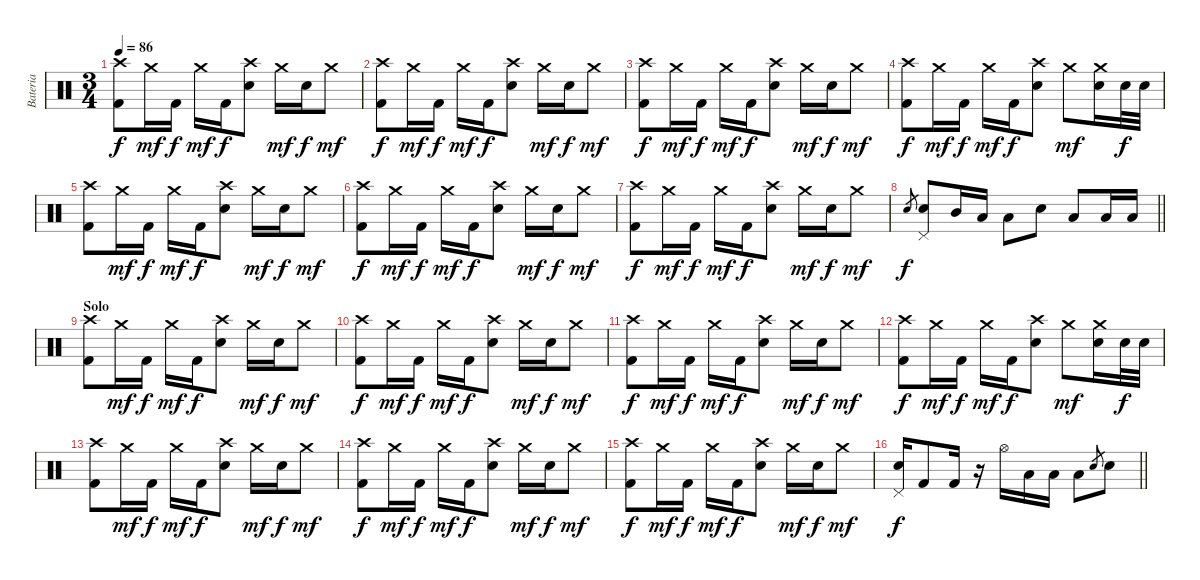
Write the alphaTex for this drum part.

\track ("Bateria" "Bateria") {instrument percussion}
\staff {score}
\articulation defaults
\ts (3 4)
\tempo 86
\clef neutral
\ks c
("Crash high (hit)" "Kick (hit) 2").8{dy f} "Crash medium (hit)".16{dy mf} "Kick (hit) 2".16{dy f} "Crash medium (hit)".16{dy mf} "Kick (hit) 2".16{dy f} ("Crash high (hit)" "Snare (hit) 2").8 "Crash medium (hit)".16{dy mf} "Snare (hit) 2".16{dy f} "Crash medium (hit)".8{dy mf} |
("Crash high (hit)" "Kick (hit) 2").8{dy f} "Crash medium (hit)".16{dy mf} "Kick (hit) 2".16{dy f} "Crash medium (hit)".16{dy mf} "Kick (hit) 2".16{dy f} ("Crash high (hit)" "Snare (hit) 2").8 "Crash medium (hit)".16{dy mf} "Snare (hit) 2".16{dy f} "Crash medium (hit)".8{dy mf} |
("Crash high (hit)" "Kick (hit) 2").8{dy f} "Crash medium (hit)".16{dy mf} "Kick (hit) 2".16{dy f} "Crash medium (hit)".16{dy mf} "Kick (hit) 2".16{dy f} ("Crash high (hit)" "Snare (hit) 2").8 "Crash medium (hit)".16{dy mf} "Snare (hit) 2".16{dy f} "Crash medium (hit)".8{dy mf} |
("Crash high (hit)" "Kick (hit) 2").8{dy f} "Crash medium (hit)".16{dy mf} "Kick (hit) 2".16{dy f} "Crash medium (hit)".16{dy mf} "Kick (hit) 2".16{dy f} ("Crash high (hit)" "Snare (hit) 2").8 "Crash medium (hit)".8{dy mf} ("Crash medium (hit)" "Snare (hit) 2").16 "Snare (hit) 2".32{dy f} "Snare (hit) 2".32 |
("Crash high (hit)" "Kick (hit) 2").8 "Crash medium (hit)".16{dy mf} "Kick (hit) 2".16{dy f} "Crash medium (hit)".16{dy mf} "Kick (hit) 2".16{dy f} ("Crash high (hit)" "Snare (hit) 2").8 "Crash medium (hit)".16{dy mf} "Snare (hit) 2".16{dy f} "Crash medium (hit)".8{dy mf} |
("Crash high (hit)" "Kick (hit) 2").8{dy f} "Crash medium (hit)".16{dy mf} "Kick (hit) 2".16{dy f} "Crash medium (hit)".16{dy mf} "Kick (hit) 2".16{dy f} ("Crash high (hit)" "Snare (hit) 2").8 "Crash medium (hit)".16{dy mf} "Snare (hit) 2".16{dy f} "Crash medium (hit)".8{dy mf} |
("Crash high (hit)" "Kick (hit) 2").8{dy f} "Crash medium (hit)".16{dy mf} "Kick (hit) 2".16{dy f} "Crash medium (hit)".16{dy mf} "Kick (hit) 2".16{dy f} ("Crash high (hit)" "Snare (hit) 2").8 "Crash medium (hit)".16{dy mf} "Snare (hit) 2".16{dy f} "Crash medium (hit)".8{dy mf} |
\barLineRight lightlight "Snare (hit) 2".8{gr dy f}
("Pedal Hi-Hat (hit)" "Snare (hit) 2").8 "Mid Tom (hit)".16 "Low Tom (hit)".16 "Low Floor Tom (hit)".8 "Snare (hit) 2".8 "Low Tom (hit)".8 "Low Floor Tom (hit)".16 "Low Floor Tom (hit)".16 |
\section ("" "Solo")
("Crash high (hit)" "Kick (hit) 2").8 "Crash medium (hit)".16{dy mf} "Kick (hit) 2".16{dy f} "Crash medium (hit)".16{dy mf} "Kick (hit) 2".16{dy f} ("Crash high (hit)" "Snare (hit) 2").8 "Crash medium (hit)".16{dy mf} "Snare (hit) 2".16{dy f} "Crash medium (hit)".8{dy mf} |
("Crash high (hit)" "Kick (hit) 2").8{dy f} "Crash medium (hit)".16{dy mf} "Kick (hit) 2".16{dy f} "Crash medium (hit)".16{dy mf} "Kick (hit) 2".16{dy f} ("Crash high (hit)" "Snare (hit) 2").8 "Crash medium (hit)".16{dy mf} "Snare (hit) 2".16{dy f} "Crash medium (hit)".8{dy mf} |
("Crash high (hit)" "Kick (hit) 2").8{dy f} "Crash medium (hit)".16{dy mf} "Kick (hit) 2".16{dy f} "Crash medium (hit)".16{dy mf} "Kick (hit) 2".16{dy f} ("Crash high (hit)" "Snare (hit) 2").8 "Crash medium (hit)".16{dy mf} "Snare (hit) 2".16{dy f} "Crash medium (hit)".8{dy mf} |
("Crash high (hit)" "Kick (hit) 2").8{dy f} "Crash medium (hit)".16{dy mf} "Kick (hit) 2".16{dy f} "Crash medium (hit)".16{dy mf} "Kick (hit) 2".16{dy f} ("Crash high (hit)" "Snare (hit) 2").8 "Crash medium (hit)".8{dy mf} ("Crash medium (hit)" "Snare (hit) 2").16 "Snare (hit) 2".32{dy f} "Snare (hit) 2".32 |
("Crash high (hit)" "Kick (hit) 2").8 "Crash medium (hit)".16{dy mf} "Kick (hit) 2".16{dy f} "Crash medium (hit)".16{dy mf} "Kick (hit) 2".16{dy f} ("Crash high (hit)" "Snare (hit) 2").8 "Crash medium (hit)".16{dy mf} "Snare (hit) 2".16{dy f} "Crash medium (hit)".8{dy mf} |
("Crash high (hit)" "Kick (hit) 2").8{dy f} "Crash medium (hit)".16{dy mf} "Kick (hit) 2".16{dy f} "Crash medium (hit)".16{dy mf} "Kick (hit) 2".16{dy f} ("Crash high (hit)" "Snare (hit) 2").8 "Crash medium (hit)".16{dy mf} "Snare (hit) 2".16{dy f} "Crash medium (hit)".8{dy mf} |
("Crash high (hit)" "Kick (hit) 2").8{dy f} "Crash medium (hit)".16{dy mf} "Kick (hit) 2".16{dy f} "Crash medium (hit)".16{dy mf} "Kick (hit) 2".16{dy f} ("Crash high (hit)" "Snare (hit) 2").8 "Crash medium (hit)".16{dy mf} "Snare (hit) 2".16{dy f} "Crash medium (hit)".8{dy mf} |
\barLineRight lightlight
("Pedal Hi-Hat (hit)" "Snare (hit) 2").16{dy f} "Kick (hit) 2".8 "Kick (hit) 2".16 r.16 "Hi-Hat (open)".16 "Low Tom (hit)".16 "Low Floor Tom (hit)".16 "Low Floor Tom (hit)".8 "Snare (hit) 2".8{gr} "Snare (hit) 2".8
